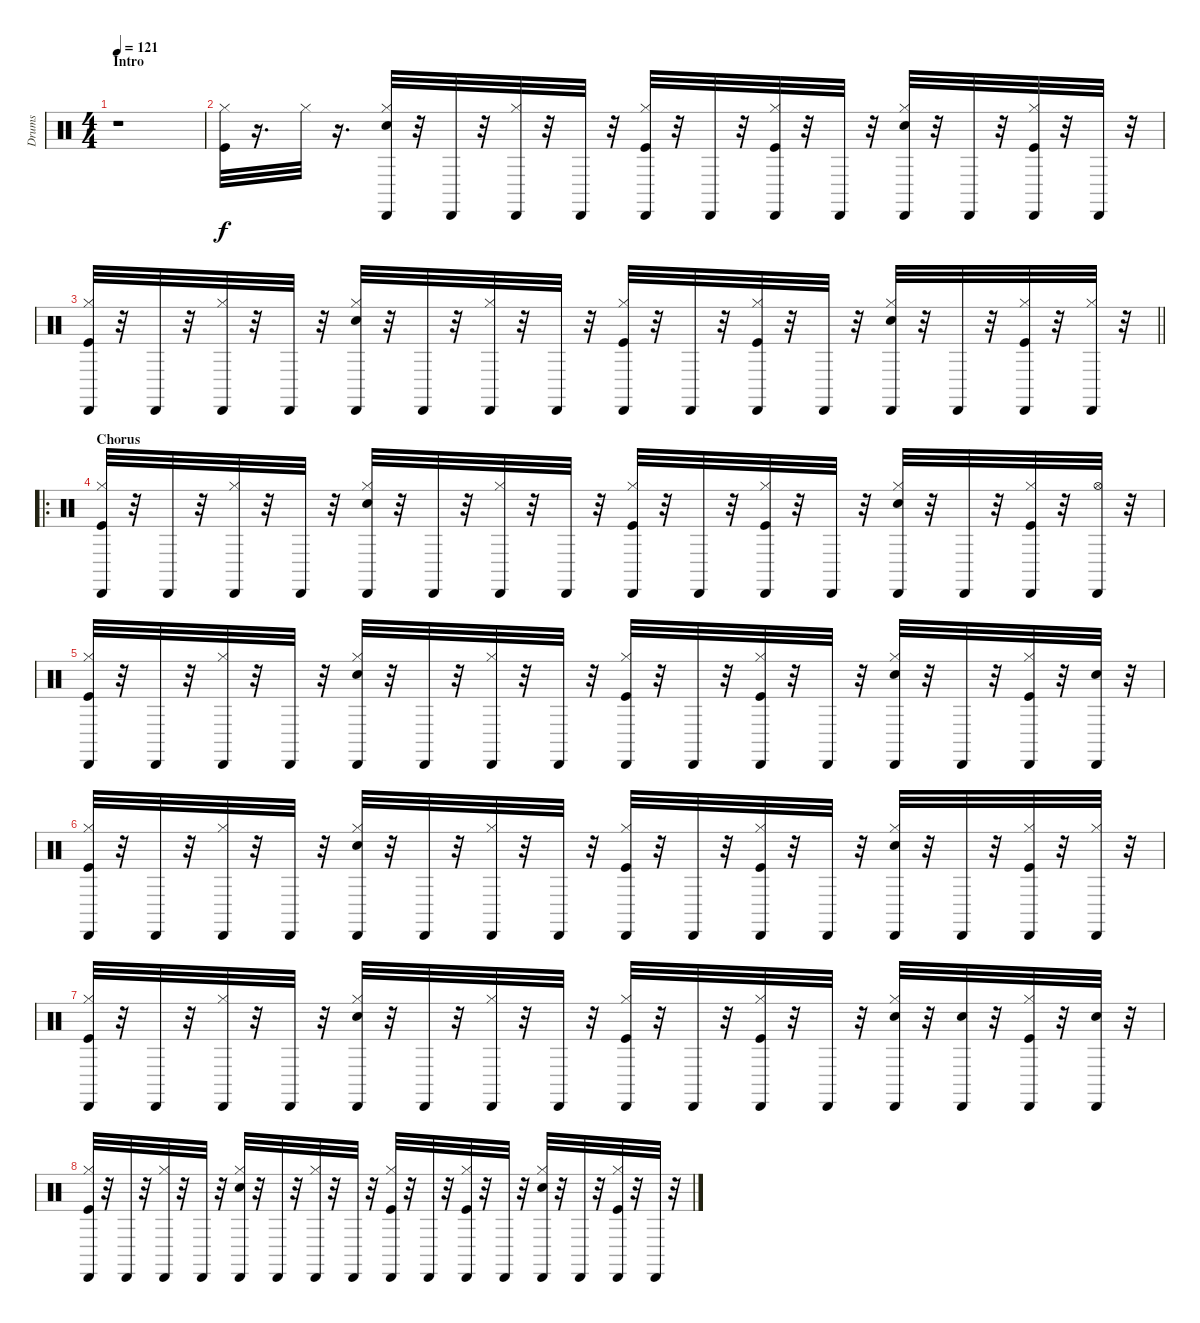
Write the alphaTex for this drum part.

\track ("Drums" "Drums") {instrument percussion}
\staff {score}
\articulation defaults
\ts (4 4)
\section ("" "Intro")
\tempo 121
\clef neutral
\ks c
r.1{dy f} |
("Hi-Hat (closed)" "Kick (hit)").32 r.16{d} "Hi-Hat (closed)".32 r.16{d} ("Hi-Hat (closed)" "Snare (hit) 2" "Cabasa (hit)").32 r.32 "Cabasa (hit)".32 r.32 ("Hi-Hat (closed)" "Cabasa (hit)").32 r.32 "Cabasa (hit)".32 r.32 ("Hi-Hat (closed)" "Kick (hit)" "Cabasa (hit)").32 r.32 "Cabasa (hit)".32 r.32 ("Hi-Hat (closed)" "Cabasa (hit)" "Kick (hit)").32 r.32 "Cabasa (hit)".32 r.32 ("Hi-Hat (closed)" "Cabasa (hit)" "Snare (hit) 2").32 r.32 "Cabasa (hit)".32 r.32 ("Hi-Hat (closed)" "Cabasa (hit)" "Kick (hit)").32 r.32 "Cabasa (hit)".32 r.32 |
\barLineRight lightlight
("Hi-Hat (closed)" "Cabasa (hit)" "Kick (hit)").32 r.32 "Cabasa (hit)".32 r.32 ("Hi-Hat (closed)" "Cabasa (hit)").32 r.32 "Cabasa (hit)".32 r.32 ("Hi-Hat (closed)" "Snare (hit) 2" "Cabasa (hit)").32 r.32 "Cabasa (hit)".32 r.32 ("Hi-Hat (closed)" "Cabasa (hit)").32 r.32 "Cabasa (hit)".32 r.32 ("Hi-Hat (closed)" "Cabasa (hit)" "Kick (hit)").32 r.32 "Cabasa (hit)".32 r.32 ("Hi-Hat (closed)" "Kick (hit)" "Cabasa (hit)").32 r.32 "Cabasa (hit)".32 r.32 ("Hi-Hat (closed)" "Cabasa (hit)" "Snare (hit) 2").32 r.32 "Cabasa (hit)".32 r.32 ("Hi-Hat (closed)" "Kick (hit)" "Cabasa (hit)").32 r.32 ("Hi-Hat (closed)" "Cabasa (hit)").32 r.32 |
\ro
\section ("" "Chorus")
("Hi-Hat (closed)" "Kick (hit)" "Cabasa (hit)").32 r.32 "Cabasa (hit)".32 r.32 ("Hi-Hat (closed)" "Cabasa (hit)").32 r.32 "Cabasa (hit)".32 r.32 ("Hi-Hat (closed)" "Cabasa (hit)" "Snare (hit) 2").32 r.32 "Cabasa (hit)".32 r.32 ("Hi-Hat (closed)" "Cabasa (hit)").32 r.32 "Cabasa (hit)".32 r.32 ("Hi-Hat (closed)" "Kick (hit)" "Cabasa (hit)").32 r.32 "Cabasa (hit)".32 r.32 ("Hi-Hat (closed)" "Kick (hit)" "Cabasa (hit)").32 r.32 "Cabasa (hit)".32 r.32 ("Hi-Hat (closed)" "Cabasa (hit)" "Snare (hit) 2").32 r.32 "Cabasa (hit)".32 r.32 ("Hi-Hat (closed)" "Cabasa (hit)" "Kick (hit)").32 r.32 ("Hi-Hat (open)" "Cabasa (hit)").32 r.32 |
("Hi-Hat (closed)" "Cabasa (hit)" "Kick (hit)").32 r.32 "Cabasa (hit)".32 r.32 ("Hi-Hat (closed)" "Cabasa (hit)").32 r.32 "Cabasa (hit)".32 r.32 ("Hi-Hat (closed)" "Cabasa (hit)" "Snare (hit) 2").32 r.32 "Cabasa (hit)".32 r.32 ("Hi-Hat (closed)" "Cabasa (hit)").32 r.32 "Cabasa (hit)".32 r.32 ("Hi-Hat (closed)" "Kick (hit)" "Cabasa (hit)").32 r.32 "Cabasa (hit)".32 r.32 ("Hi-Hat (closed)" "Cabasa (hit)" "Kick (hit)").32 r.32 "Cabasa (hit)".32 r.32 ("Hi-Hat (closed)" "Cabasa (hit)" "Snare (hit) 2").32 r.32 "Cabasa (hit)".32 r.32 ("Hi-Hat (closed)" "Cabasa (hit)" "Kick (hit)").32 r.32 ("Cabasa (hit)" "Snare (hit) 2").32 r.32 |
("Hi-Hat (closed)" "Kick (hit)" "Cabasa (hit)").32 r.32 "Cabasa (hit)".32 r.32 ("Hi-Hat (closed)" "Cabasa (hit)").32 r.32 "Cabasa (hit)".32 r.32 ("Hi-Hat (closed)" "Cabasa (hit)" "Snare (hit) 2").32 r.32 "Cabasa (hit)".32 r.32 ("Hi-Hat (closed)" "Cabasa (hit)").32 r.32 "Cabasa (hit)".32 r.32 ("Hi-Hat (closed)" "Kick (hit)" "Cabasa (hit)").32 r.32 "Cabasa (hit)".32 r.32 ("Hi-Hat (closed)" "Cabasa (hit)" "Kick (hit)").32 r.32 "Cabasa (hit)".32 r.32 ("Hi-Hat (closed)" "Cabasa (hit)" "Snare (hit) 2").32 r.32 "Cabasa (hit)".32 r.32 ("Hi-Hat (closed)" "Kick (hit)" "Cabasa (hit)").32 r.32 ("Hi-Hat (closed)" "Cabasa (hit)").32 r.32 |
("Hi-Hat (closed)" "Cabasa (hit)" "Kick (hit)").32 r.32 "Cabasa (hit)".32 r.32 ("Hi-Hat (closed)" "Cabasa (hit)").32 r.32 "Cabasa (hit)".32 r.32 ("Hi-Hat (closed)" "Snare (hit) 2" "Cabasa (hit)").32 r.32 "Cabasa (hit)".32 r.32 ("Hi-Hat (closed)" "Cabasa (hit)").32 r.32 "Cabasa (hit)".32 r.32 ("Hi-Hat (closed)" "Cabasa (hit)" "Kick (hit)").32 r.32 "Cabasa (hit)".32 r.32 ("Hi-Hat (closed)" "Cabasa (hit)" "Kick (hit)").32 r.32 "Cabasa (hit)".32 r.32 ("Hi-Hat (closed)" "Cabasa (hit)" "Snare (hit) 2").32 r.32 ("Snare (hit) 2" "Cabasa (hit)").32 r.32 ("Hi-Hat (closed)" "Kick (hit)" "Cabasa (hit)").32 r.32 ("Cabasa (hit)" "Snare (hit) 2").32 r.32 |
("Hi-Hat (closed)" "Cabasa (hit)" "Kick (hit)").32 r.32 "Cabasa (hit)".32 r.32 ("Hi-Hat (closed)" "Cabasa (hit)").32 r.32 "Cabasa (hit)".32 r.32 ("Hi-Hat (closed)" "Cabasa (hit)" "Snare (hit) 2").32 r.32 "Cabasa (hit)".32 r.32 ("Hi-Hat (closed)" "Cabasa (hit)").32 r.32 "Cabasa (hit)".32 r.32 ("Hi-Hat (closed)" "Cabasa (hit)" "Kick (hit)").32 r.32 "Cabasa (hit)".32 r.32 ("Hi-Hat (closed)" "Cabasa (hit)" "Kick (hit)").32 r.32 "Cabasa (hit)".32 r.32 ("Hi-Hat (closed)" "Snare (hit) 2" "Cabasa (hit)").32 r.32 "Cabasa (hit)".32 r.32 ("Hi-Hat (closed)" "Kick (hit)" "Cabasa (hit)").32 r.32 "Cabasa (hit)".32 r.32
